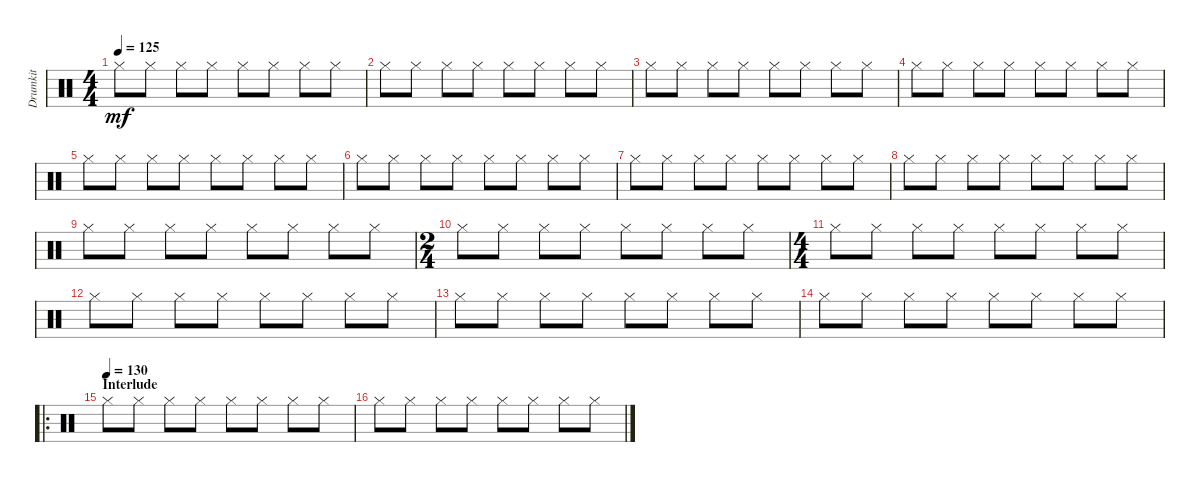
\track ("Drumkit" "Drumkit") {mute instrument percussion}
\staff {score}
\articulation defaults
\ts (4 4)
\tempo 125
\clef neutral
\ks c "Hi-Hat (closed)".8{dy mf} "Hi-Hat (closed)".8 "Hi-Hat (closed)".8 "Hi-Hat (closed)".8 "Hi-Hat (closed)".8 "Hi-Hat (closed)".8 "Hi-Hat (closed)".8 "Hi-Hat (closed)".8
|
"Hi-Hat (closed)".8 "Hi-Hat (closed)".8 "Hi-Hat (closed)".8 "Hi-Hat (closed)".8 "Hi-Hat (closed)".8 "Hi-Hat (closed)".8 "Hi-Hat (closed)".8 "Hi-Hat (closed)".8 |
"Hi-Hat (closed)".8 "Hi-Hat (closed)".8 "Hi-Hat (closed)".8 "Hi-Hat (closed)".8 "Hi-Hat (closed)".8 "Hi-Hat (closed)".8 "Hi-Hat (closed)".8 "Hi-Hat (closed)".8 |
"Hi-Hat (closed)".8 "Hi-Hat (closed)".8 "Hi-Hat (closed)".8 "Hi-Hat (closed)".8 "Hi-Hat (closed)".8 "Hi-Hat (closed)".8 "Hi-Hat (closed)".8 "Hi-Hat (closed)".8 |
"Hi-Hat (closed)".8 "Hi-Hat (closed)".8 "Hi-Hat (closed)".8 "Hi-Hat (closed)".8 "Hi-Hat (closed)".8 "Hi-Hat (closed)".8 "Hi-Hat (closed)".8 "Hi-Hat (closed)".8 |
"Hi-Hat (closed)".8 "Hi-Hat (closed)".8 "Hi-Hat (closed)".8 "Hi-Hat (closed)".8 "Hi-Hat (closed)".8 "Hi-Hat (closed)".8 "Hi-Hat (closed)".8 "Hi-Hat (closed)".8 |
"Hi-Hat (closed)".8 "Hi-Hat (closed)".8 "Hi-Hat (closed)".8 "Hi-Hat (closed)".8 "Hi-Hat (closed)".8 "Hi-Hat (closed)".8 "Hi-Hat (closed)".8 "Hi-Hat (closed)".8 |
"Hi-Hat (closed)".8 "Hi-Hat (closed)".8 "Hi-Hat (closed)".8 "Hi-Hat (closed)".8 "Hi-Hat (closed)".8 "Hi-Hat (closed)".8 "Hi-Hat (closed)".8 "Hi-Hat (closed)".8 |
"Hi-Hat (closed)".8 "Hi-Hat (closed)".8 "Hi-Hat (closed)".8 "Hi-Hat (closed)".8 "Hi-Hat (closed)".8 "Hi-Hat (closed)".8 "Hi-Hat (closed)".8 "Hi-Hat (closed)".8 |
\ts (2 4)
"Hi-Hat (closed)".8 "Hi-Hat (closed)".8 "Hi-Hat (closed)".8 "Hi-Hat (closed)".8 "Hi-Hat (closed)".8 "Hi-Hat (closed)".8 "Hi-Hat (closed)".8 "Hi-Hat (closed)".8 |
\ts (4 4)
"Hi-Hat (closed)".8 "Hi-Hat (closed)".8 "Hi-Hat (closed)".8 "Hi-Hat (closed)".8 "Hi-Hat (closed)".8 "Hi-Hat (closed)".8 "Hi-Hat (closed)".8 "Hi-Hat (closed)".8 |
"Hi-Hat (closed)".8 "Hi-Hat (closed)".8 "Hi-Hat (closed)".8 "Hi-Hat (closed)".8 "Hi-Hat (closed)".8 "Hi-Hat (closed)".8 "Hi-Hat (closed)".8 "Hi-Hat (closed)".8 |
"Hi-Hat (closed)".8 "Hi-Hat (closed)".8 "Hi-Hat (closed)".8 "Hi-Hat (closed)".8 "Hi-Hat (closed)".8 "Hi-Hat (closed)".8 "Hi-Hat (closed)".8 "Hi-Hat (closed)".8 |
"Hi-Hat (closed)".8 "Hi-Hat (closed)".8 "Hi-Hat (closed)".8 "Hi-Hat (closed)".8 "Hi-Hat (closed)".8 "Hi-Hat (closed)".8 "Hi-Hat (closed)".8 "Hi-Hat (closed)".8 |
\ro
\section ("" "Interlude")
\tempo (130)
"Hi-Hat (closed)".8 "Hi-Hat (closed)".8 "Hi-Hat (closed)".8 "Hi-Hat (closed)".8 "Hi-Hat (closed)".8 "Hi-Hat (closed)".8 "Hi-Hat (closed)".8 "Hi-Hat (closed)".8 |
"Hi-Hat (closed)".8 "Hi-Hat (closed)".8 "Hi-Hat (closed)".8 "Hi-Hat (closed)".8 "Hi-Hat (closed)".8 "Hi-Hat (closed)".8 "Hi-Hat (closed)".8 "Hi-Hat (closed)".8
